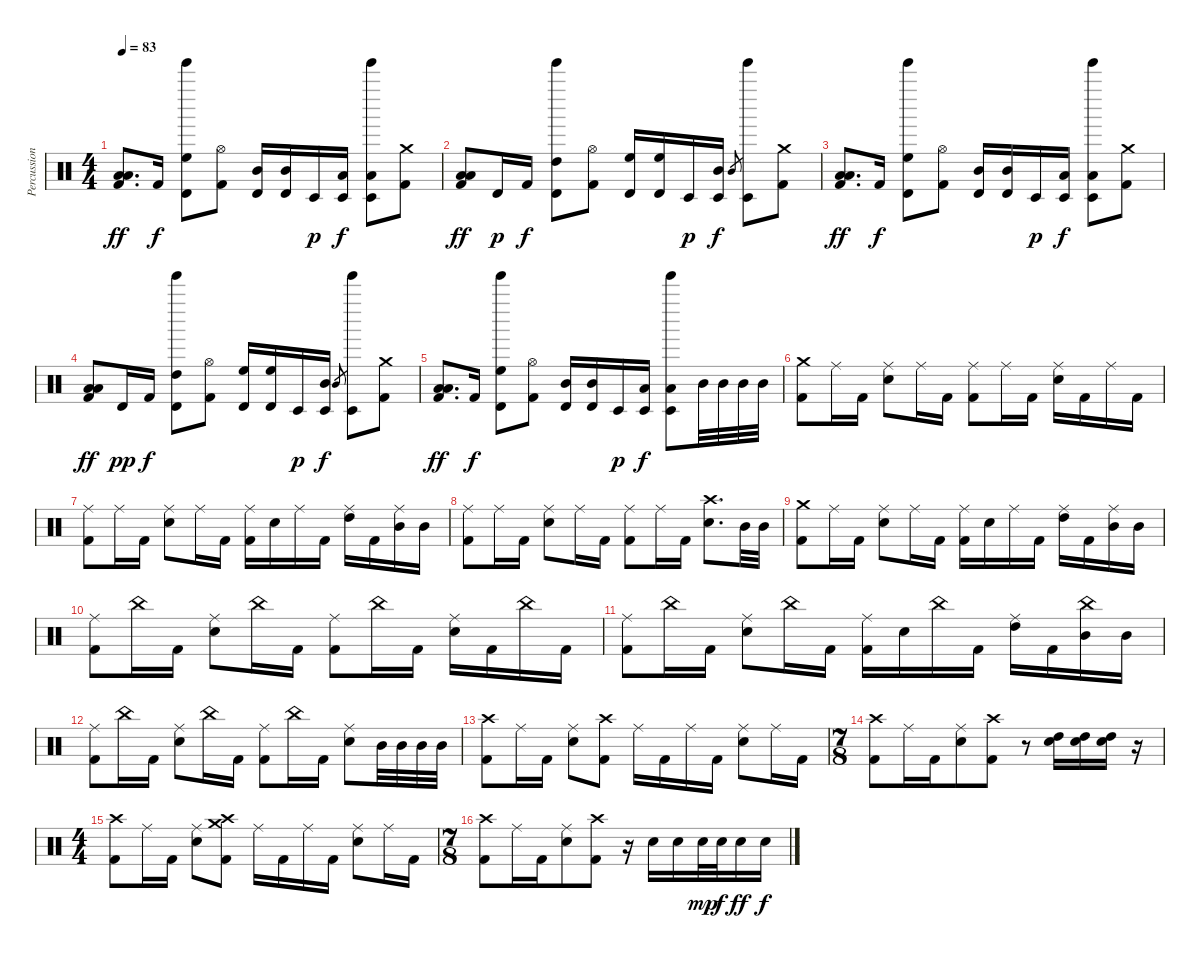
\track ("Percussion" "Percussion") {instrument percussion}
\staff {score}
\articulation defaults
\ts (4 4)
\tempo 83
\clef neutral
\ks c
("Low Floor Tom (hit)" "Low Floor Tom (hit)" "Kick (hit) 2").8{d dy ff} "Kick (hit) 2".16{dy f} ("Tinkle Bell (hit)" "Timbale high (hit)" "High Floor Tom (hit)").8{bu 120} ("Hi-Hat (open)" "Kick (hit) 2").8 ("Timbale high (hit)" "Mid Tom (hit)").16 ("Timbale high (hit)" "Mid Tom (hit)").16{bu 480} "Timbale low (hit)".16{dy p} ("Timbale low (hit)" "Low Tom (hit)").16{dy f} ("Tinkle Bell (hit)" "Timbale low (hit)" "Low Tom (hit)").8{bu 120} ("Crash medium (hit)" "Kick (hit) 2").8 |
("Low Floor Tom (hit)" "Low Floor Tom (hit)" "Kick (hit) 2").8{dy ff} "Timbale high (hit)".16{dy p} "Kick (hit) 2".16{dy f} ("Tinkle Bell (hit)" "Timbale high (hit)" "High Tom (hit)").8{bu 120} ("Hi-Hat (open)" "Kick (hit) 2").8 ("Timbale high (hit)" "High Floor Tom (hit)").16 ("Timbale high (hit)" "High Floor Tom (hit)").16{bd 480} "Timbale low (hit)".16{dy p} ("Timbale low (hit)" "Mid Tom (hit)").16{dy f} "Mid Tom (hit)".8{gr} ("Tinkle Bell (hit)" "Timbale low (hit)").8 ("Crash medium (hit)" "Kick (hit) 2").8 |
("Low Floor Tom (hit)" "Low Floor Tom (hit)" "Kick (hit) 2").8{d dy ff} "Kick (hit) 2".16{dy f} ("Tinkle Bell (hit)" "Timbale high (hit)" "High Floor Tom (hit)").8{bu 120} ("Hi-Hat (open)" "Kick (hit) 2").8 ("Timbale high (hit)" "Mid Tom (hit)").16 ("Timbale high (hit)" "Mid Tom (hit)").16{bu 480} "Timbale low (hit)".16{dy p} ("Timbale low (hit)" "Low Tom (hit)").16{dy f} ("Tinkle Bell (hit)" "Timbale low (hit)" "Low Tom (hit)").8{bu 120} ("Crash medium (hit)" "Kick (hit) 2").8 |
("Low Floor Tom (hit)" "Low Floor Tom (hit)" "Kick (hit) 2").8{dy ff} "Timbale high (hit)".16{dy pp} "Kick (hit) 2".16{dy f} ("Tinkle Bell (hit)" "Timbale high (hit)" "High Tom (hit)").8{bu 120} ("Hi-Hat (open)" "Kick (hit) 2").8 ("Timbale high (hit)" "High Floor Tom (hit)").16 ("Timbale high (hit)" "High Floor Tom (hit)").16{bd 480} "Timbale low (hit)".16{dy p} ("Timbale low (hit)" "Mid Tom (hit)").16{dy f} "Mid Tom (hit)".8{gr} ("Tinkle Bell (hit)" "Timbale low (hit)").8 ("Crash medium (hit)" "Kick (hit) 2").8 |
("Low Floor Tom (hit)" "Low Floor Tom (hit)" "Kick (hit) 2").8{d dy ff} "Kick (hit) 2".16{dy f} ("Tinkle Bell (hit)" "Timbale high (hit)" "High Floor Tom (hit)").8{bu 120} ("Hi-Hat (open)" "Kick (hit) 2").8 ("Timbale high (hit)" "Mid Tom (hit)").16 ("Timbale high (hit)" "Mid Tom (hit)").16{bu 480} "Timbale low (hit)".16{dy p} ("Timbale low (hit)" "Low Tom (hit)").16{dy f} ("Tinkle Bell (hit)" "Timbale low (hit)" "Low Tom (hit)").8{bu 120} "Mid Tom (hit)".32 "Mid Tom (hit)".32 "Mid Tom (hit)".32 "Mid Tom (hit)".32 |
("Crash medium (hit)" "Kick (hit) 2").8 "Ride (middle)".16 "Kick (hit) 2".16 ("Ride (middle)" "Electric Snare (hit)").8 "Ride (middle)".16 "Kick (hit) 2".16 ("Ride (middle)" "Kick (hit) 2").8 "Ride (middle)".16 "Kick (hit) 2".16 ("Ride (middle)" "Electric Snare (hit)").16 "Kick (hit) 2".16 "Ride (middle)".16 "Kick (hit) 2".16 |
("Ride (middle)" "Kick (hit) 2").8 "Ride (middle)".16 "Kick (hit) 2".16 ("Ride (middle)" "Electric Snare (hit)").8 "Ride (middle)".16 "Kick (hit) 2".16 ("Ride (middle)" "Kick (hit) 2").16 "Electric Snare (hit)".16 "Ride (middle)".16 "Kick (hit) 2".16 ("Ride (middle)" "High Tom (hit)").16 "Kick (hit) 2".16 ("Ride (middle)" "Mid Tom (hit)").16 "Mid Tom (hit)".16 |
("Ride (middle)" "Kick (hit) 2").8 "Ride (middle)".16 "Kick (hit) 2".16 ("Ride (middle)" "Electric Snare (hit)").8 "Ride (middle)".16 "Kick (hit) 2".16 ("Ride (middle)" "Kick (hit) 2").8 "Ride (middle)".16 "Kick (hit) 2".16 ("Crash high (hit)" "Electric Snare (hit)").8{d} "Mid Tom (hit)".32 "Mid Tom (hit)".32 |
("Crash medium (hit)" "Kick (hit) 2").8 "Ride (middle)".16 "Kick (hit) 2".16 ("Ride (middle)" "Electric Snare (hit)").8 "Ride (middle)".16 "Kick (hit) 2".16 ("Ride (middle)" "Kick (hit) 2").16 "Electric Snare (hit)".16 "Ride (middle)".16 "Kick (hit) 2".16 ("Ride (middle)" "High Tom (hit)").16 "Kick (hit) 2".16 ("Ride (middle)" "Mid Tom (hit)").16 "Mid Tom (hit)".16 |
("Ride (middle)" "Kick (hit) 2").8 "China (hit)".16 "Kick (hit) 2".16 ("Ride (middle)" "Electric Snare (hit)").8 "China (hit)".16 "Kick (hit) 2".16 ("Ride (middle)" "Kick (hit) 2").8 "China (hit)".16 "Kick (hit) 2".16 ("Ride (middle)" "Electric Snare (hit)").16 "Kick (hit) 2".16 "China (hit)".16 "Kick (hit) 2".16 |
("Ride (middle)" "Kick (hit) 2").8 "China (hit)".16 "Kick (hit) 2".16 ("Ride (middle)" "Electric Snare (hit)").8 "China (hit)".16 "Kick (hit) 2".16 ("Ride (middle)" "Kick (hit) 2").16 "Electric Snare (hit)".16 "China (hit)".16 "Kick (hit) 2".16 ("Ride (middle)" "High Tom (hit)").16 "Kick (hit) 2".16 ("China (hit)" "Mid Tom (hit)").16 "Mid Tom (hit)".16 |
("Ride (middle)" "Kick (hit) 2").8 "China (hit)".16 "Kick (hit) 2".16 ("Ride (middle)" "Electric Snare (hit)").8 "China (hit)".16 "Kick (hit) 2".16 ("Ride (middle)" "Kick (hit) 2").8 "China (hit)".16 "Kick (hit) 2".16 ("Ride (middle)" "Electric Snare (hit)").8 "Mid Tom (hit)".32 "Mid Tom (hit)".32 "Mid Tom (hit)".32 "Mid Tom (hit)".32 |
("Crash high (hit)" "Kick (hit) 2").8 "Ride (middle)".16 "Kick (hit) 2".16 ("Ride (middle)" "Electric Snare (hit)").8 ("Crash high (hit)" "Kick (hit) 2").8 "Ride (middle)".16 "Kick (hit) 2".16 "Ride (middle)".16 "Kick (hit) 2".16 ("Ride (middle)" "Electric Snare (hit)").8 "Ride (middle)".16 "Kick (hit) 2".16 |
\ts (7 8)
("Crash high (hit)" "Kick (hit) 2").8 "Ride (middle)".16 "Kick (hit) 2".16 ("Ride (middle)" "Electric Snare (hit)").8 ("Crash high (hit)" "Kick (hit) 2").8 r.8 ("Electric Snare (hit)" "High Tom (hit)").16{bd 480} ("Electric Snare (hit)" "High Tom (hit)").16{bd 480} ("Electric Snare (hit)" "High Tom (hit)").16{bd 480} r.16 |
\ts (4 4)
("Crash high (hit)" "Kick (hit) 2").8 "Ride (middle)".16 "Kick (hit) 2".16 ("Ride (middle)" "Electric Snare (hit)").8 ("Crash high (hit)" "Crash medium (hit)" "Kick (hit) 2").8 "Ride (middle)".16 "Kick (hit) 2".16 "Ride (middle)".16 "Kick (hit) 2".16 ("Ride (middle)" "Electric Snare (hit)").8 "Ride (middle)".16 "Kick (hit) 2".16 |
\ts (7 8)
("Crash high (hit)" "Kick (hit) 2").8 "Ride (middle)".16 "Kick (hit) 2".16 ("Ride (middle)" "Electric Snare (hit)").8 ("Crash high (hit)" "Kick (hit) 2").8 r.16 "Electric Snare (hit)".16 "Electric Snare (hit)".16 "Electric Snare (hit)".32{dy mp} "Electric Snare (hit)".32{dy f} "Electric Snare (hit)".16{dy ff} "Electric Snare (hit)".16{dy f}
